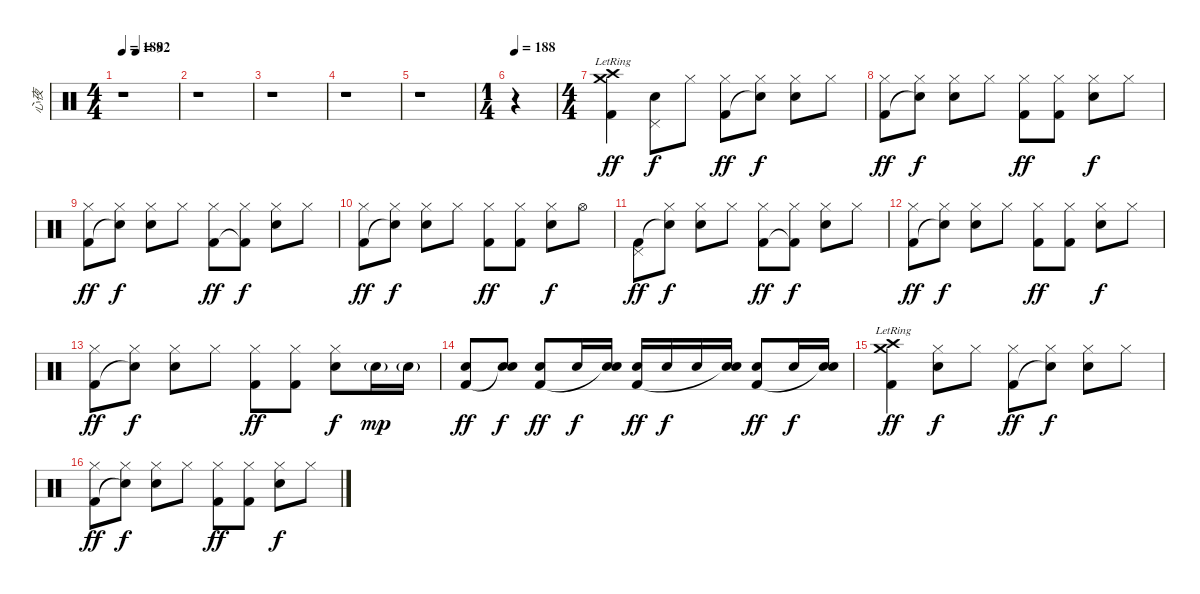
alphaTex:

\track ("心夜" "心夜") {instrument percussion}
\staff {score}
\articulation defaults
\ts (4 4)
\tempo 188
\tempo 50
\tempo (92 0.25)
\tempo 188
\clef neutral
\ks c
r.1{dy ff} |
r.1 |
r.1 |
r.1 |
r.1 |
\ts (1 4)
\tempo 188
r.4 |
\ts (4 4)
("Crash medium (hit)"{lr} "Crash high (hit)"{lr} "Kick (hit) 2").4 ("Pedal Hi-Hat (hit)" "Electric Snare (hit)").8{dy f} "Hi-Hat (closed)".8 ("Hi-Hat (closed)" "Kick (hit) 2").8{dy ff} ("Hi-Hat (closed)" "Snare (hit)"{t}).8{dy f} ("Hi-Hat (closed)" "Electric Snare (hit)").8 "Hi-Hat (closed)".8 |
("Hi-Hat (closed)" "Kick (hit) 2").8{dy ff} ("Hi-Hat (closed)" "Snare (hit)"{t}).8{dy f} ("Hi-Hat (closed)" "Electric Snare (hit)").8 "Hi-Hat (closed)".8 ("Hi-Hat (closed)" "Kick (hit) 2").8{dy ff} ("Hi-Hat (closed)" "Kick (hit) 2").8 ("Hi-Hat (closed)" "Electric Snare (hit)").8{dy f} "Hi-Hat (closed)".8 |
("Hi-Hat (closed)" "Kick (hit) 2").8{dy ff} ("Hi-Hat (closed)" "Snare (hit)"{t}).8{dy f} ("Hi-Hat (closed)" "Electric Snare (hit)").8 "Hi-Hat (closed)".8 ("Hi-Hat (closed)" "Kick (hit) 2").8{dy ff} ("Hi-Hat (closed)" "Kick (hit) 2"{t}).8{dy f} ("Hi-Hat (closed)" "Electric Snare (hit)").8 "Hi-Hat (closed)".8 |
("Hi-Hat (closed)" "Kick (hit) 2").8{dy ff} ("Hi-Hat (closed)" "Snare (hit)"{t}).8{dy f} ("Hi-Hat (closed)" "Electric Snare (hit)").8 "Hi-Hat (closed)".8 ("Hi-Hat (closed)" "Kick (hit) 2").8{dy ff} ("Hi-Hat (closed)" "Kick (hit) 2").8 ("Hi-Hat (closed)" "Electric Snare (hit)").8{dy f} "Hi-Hat (open)".8 |
("Pedal Hi-Hat (hit)" "Kick (hit) 2").8{dy ff} ("Hi-Hat (closed)" "Snare (hit)"{t}).8{dy f} ("Hi-Hat (closed)" "Electric Snare (hit)").8 "Hi-Hat (closed)".8 ("Hi-Hat (closed)" "Kick (hit) 2").8{dy ff} ("Hi-Hat (closed)" "Kick (hit) 2"{t}).8{dy f} ("Hi-Hat (closed)" "Electric Snare (hit)").8 "Hi-Hat (closed)".8 |
("Hi-Hat (closed)" "Kick (hit) 2").8{dy ff} ("Hi-Hat (closed)" "Snare (hit)"{t}).8{dy f} ("Hi-Hat (closed)" "Electric Snare (hit)").8 "Hi-Hat (closed)".8 ("Hi-Hat (closed)" "Kick (hit) 2").8{dy ff} ("Hi-Hat (closed)" "Kick (hit) 2").8 ("Hi-Hat (closed)" "Electric Snare (hit)").8{dy f} "Hi-Hat (closed)".8 |
("Hi-Hat (closed)" "Kick (hit) 2").8{dy ff} ("Hi-Hat (closed)" "Snare (hit)"{t}).8{dy f} ("Hi-Hat (closed)" "Electric Snare (hit)").8 "Hi-Hat (closed)".8 ("Hi-Hat (closed)" "Kick (hit) 2").8{dy ff} ("Hi-Hat (closed)" "Kick (hit) 2").8 ("Hi-Hat (closed)" "Electric Snare (hit)").8{dy f} "Electric Snare (hit)"{g}.16{dy mp} "Electric Snare (hit)"{g}.16 |
("Electric Snare (hit)" "Kick (hit) 2").8{dy ff} ("Electric Snare (hit)" "Snare (hit)"{t}).8{dy f} ("Electric Snare (hit)" "Kick (hit) 2").8{dy ff} "Electric Snare (hit)".16{dy f} ("Electric Snare (hit)" "Snare (hit)"{t}).16 ("Electric Snare (hit)" "Kick (hit) 2").16{dy ff} "Electric Snare (hit)".16{dy f} "Electric Snare (hit)".16 ("Electric Snare (hit)" "Snare (hit)"{t}).16 ("Electric Snare (hit)" "Kick (hit) 2").8{dy ff} "Electric Snare (hit)".16{dy f} ("Electric Snare (hit)" "Snare (hit)"{t}).16 |
("Crash medium (hit)"{lr} "Crash high (hit)"{lr} "Kick (hit) 2").4{dy ff} ("Hi-Hat (closed)" "Electric Snare (hit)").8{dy f} "Hi-Hat (closed)".8 ("Hi-Hat (closed)" "Kick (hit) 2").8{dy ff} ("Hi-Hat (closed)" "Snare (hit)"{t}).8{dy f} ("Hi-Hat (closed)" "Electric Snare (hit)").8 "Hi-Hat (closed)".8 |
("Hi-Hat (closed)" "Kick (hit) 2").8{dy ff} ("Hi-Hat (closed)" "Snare (hit)"{t}).8{dy f} ("Hi-Hat (closed)" "Electric Snare (hit)").8 "Hi-Hat (closed)".8 ("Hi-Hat (closed)" "Kick (hit) 2").8{dy ff} ("Hi-Hat (closed)" "Kick (hit) 2").8 ("Hi-Hat (closed)" "Electric Snare (hit)").8{dy f} "Hi-Hat (closed)".8
